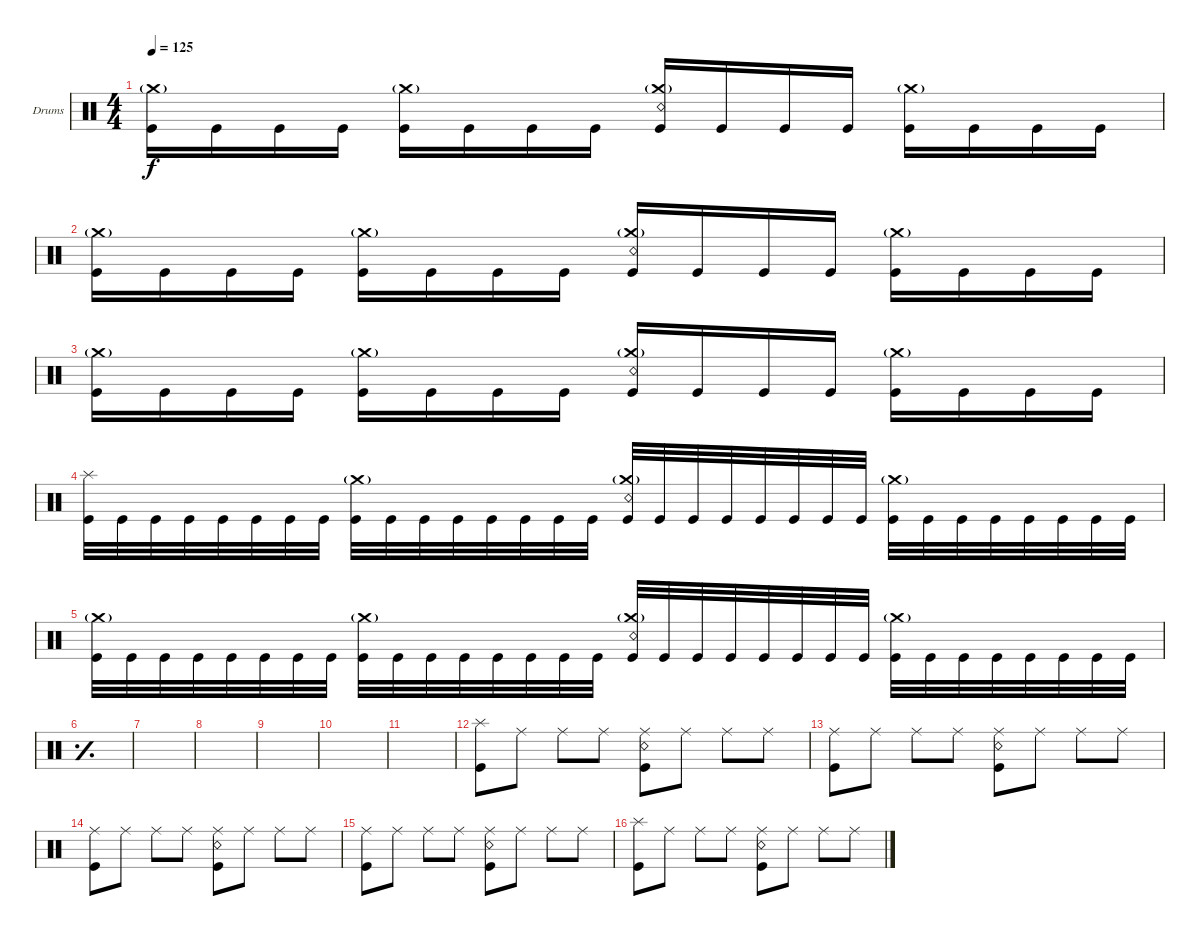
\defaultSystemsLayout 4
\bracketExtendMode groupsimilarinstruments
\firstSystemTrackNameOrientation horizontal
\otherSystemsTrackNameOrientation horizontal
\track ("Drumkit" "Drums") {instrument percussion}
\staff {score}
\articulation defaults
\ts (4 4)
\tempo 125
\clef neutral
\ks c
("Kick (hit)" "Crash medium (hit)"{g}).16{dy f} "Kick (hit)".16 "Kick (hit)".16 "Kick (hit)".16 ("Kick (hit)" "Crash medium (hit)"{g}).16 "Kick (hit)".16 "Kick (hit)".16 "Kick (hit)".16 ("Kick (hit)" "Snare (rim shot)" "Crash medium (hit)"{g}).16 "Kick (hit)".16 "Kick (hit)".16 "Kick (hit)".16 ("Kick (hit)" "Crash medium (hit)"{g}).16 "Kick (hit)".16 "Kick (hit)".16 "Kick (hit)".16 |
("Kick (hit)" "Crash medium (hit)"{g}).16 "Kick (hit)".16 "Kick (hit)".16 "Kick (hit)".16 ("Kick (hit)" "Crash medium (hit)"{g}).16 "Kick (hit)".16 "Kick (hit)".16 "Kick (hit)".16 ("Kick (hit)" "Snare (rim shot)" "Crash medium (hit)"{g}).16 "Kick (hit)".16 "Kick (hit)".16 "Kick (hit)".16 ("Kick (hit)" "Crash medium (hit)"{g}).16 "Kick (hit)".16 "Kick (hit)".16 "Kick (hit)".16 |
("Kick (hit)" "Crash medium (hit)"{g}).16 "Kick (hit)".16 "Kick (hit)".16 "Kick (hit)".16 ("Kick (hit)" "Crash medium (hit)"{g}).16 "Kick (hit)".16 "Kick (hit)".16 "Kick (hit)".16 ("Kick (hit)" "Snare (rim shot)" "Crash medium (hit)"{g}).16 "Kick (hit)".16 "Kick (hit)".16 "Kick (hit)".16 ("Kick (hit)" "Crash medium (hit)"{g}).16 "Kick (hit)".16 "Kick (hit)".16 "Kick (hit)".16 |
("Kick (hit)" "Splash (hit)").32 "Kick (hit)".32 "Kick (hit)".32 "Kick (hit)".32 "Kick (hit)".32 "Kick (hit)".32 "Kick (hit)".32 "Kick (hit)".32 ("Kick (hit)" "Crash medium (hit)"{g}).32 "Kick (hit)".32 "Kick (hit)".32 "Kick (hit)".32 "Kick (hit)".32 "Kick (hit)".32 "Kick (hit)".32 "Kick (hit)".32 ("Kick (hit)" "Snare (rim shot)" "Crash medium (hit)"{g}).32 "Kick (hit)".32 "Kick (hit)".32 "Kick (hit)".32 "Kick (hit)".32 "Kick (hit)".32 "Kick (hit)".32 "Kick (hit)".32 ("Kick (hit)" "Crash medium (hit)"{g}).32 "Kick (hit)".32 "Kick (hit)".32 "Kick (hit)".32 "Kick (hit)".32 "Kick (hit)".32 "Kick (hit)".32 "Kick (hit)".32 |
("Kick (hit)" "Crash medium (hit)"{g}).32 "Kick (hit)".32 "Kick (hit)".32 "Kick (hit)".32 "Kick (hit)".32 "Kick (hit)".32 "Kick (hit)".32 "Kick (hit)".32 ("Kick (hit)" "Crash medium (hit)"{g}).32 "Kick (hit)".32 "Kick (hit)".32 "Kick (hit)".32 "Kick (hit)".32 "Kick (hit)".32 "Kick (hit)".32 "Kick (hit)".32 ("Kick (hit)" "Snare (rim shot)" "Crash medium (hit)"{g}).32 "Kick (hit)".32 "Kick (hit)".32 "Kick (hit)".32 "Kick (hit)".32 "Kick (hit)".32 "Kick (hit)".32 "Kick (hit)".32 ("Kick (hit)" "Crash medium (hit)"{g}).32 "Kick (hit)".32 "Kick (hit)".32 "Kick (hit)".32 "Kick (hit)".32 "Kick (hit)".32 "Kick (hit)".32 "Kick (hit)".32 |
\simile simple
|
|
|
|
|
|
\simile none
("Kick (hit)" "Splash (hit)").8 "Ride (middle)".8 "Ride (middle)".8 "Ride (middle)".8 ("Ride (middle)" "Snare (rim shot)" "Kick (hit)").8 "Ride (middle)".8 "Ride (middle)".8 "Ride (middle)".8 |
("Kick (hit)" "Ride (middle)").8 "Ride (middle)".8 "Ride (middle)".8 "Ride (middle)".8 ("Ride (middle)" "Snare (rim shot)" "Kick (hit)").8 "Ride (middle)".8 "Ride (middle)".8 "Ride (middle)".8 |
("Kick (hit)" "Ride (middle)").8 "Ride (middle)".8 "Ride (middle)".8 "Ride (middle)".8 ("Ride (middle)" "Snare (rim shot)" "Kick (hit)").8 "Ride (middle)".8 "Ride (middle)".8 "Ride (middle)".8 |
("Kick (hit)" "Ride (middle)").8 "Ride (middle)".8 "Ride (middle)".8 "Ride (middle)".8 ("Ride (middle)" "Snare (rim shot)" "Kick (hit)").8 "Ride (middle)".8 "Ride (middle)".8 "Ride (middle)".8 |
("Kick (hit)" "Splash (hit)").8 "Ride (middle)".8 "Ride (middle)".8 "Ride (middle)".8 ("Ride (middle)" "Snare (rim shot)" "Kick (hit)").8 "Ride (middle)".8 "Ride (middle)".8 "Ride (middle)".8
